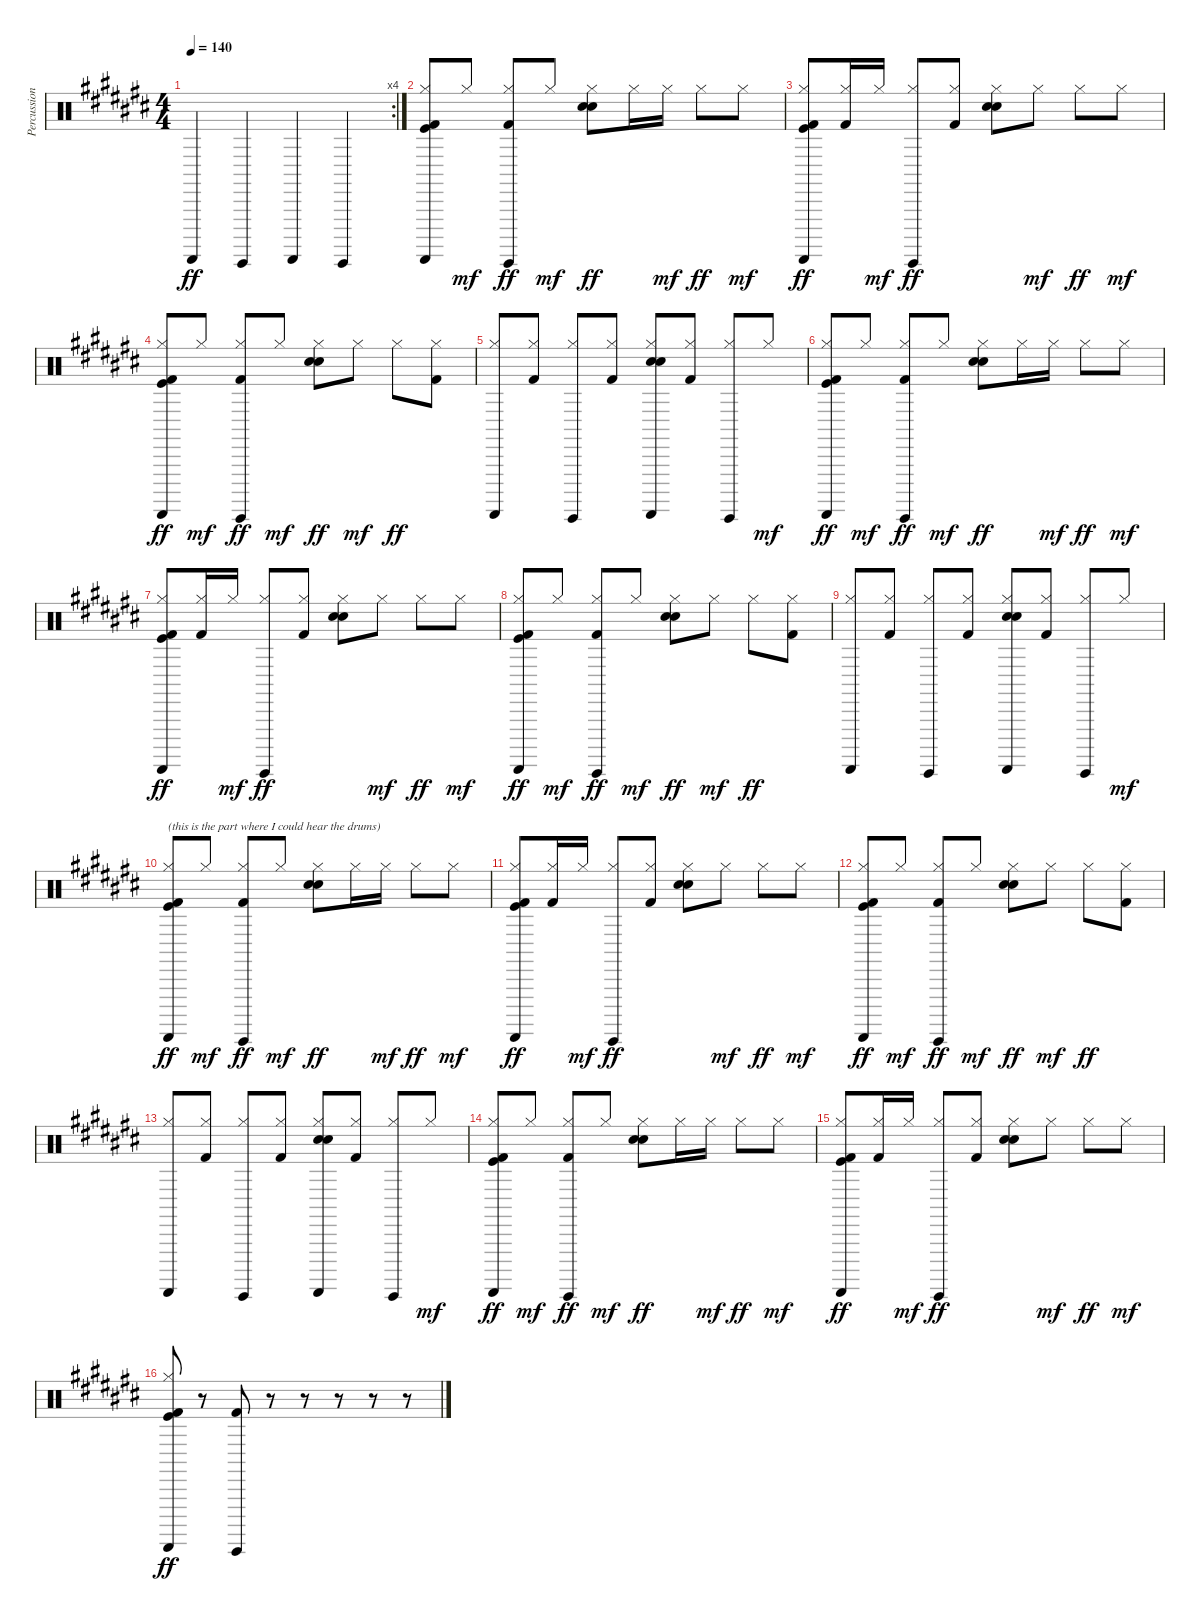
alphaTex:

\track ("Percussion" "Percussion") {instrument percussion}
\staff {score}
\articulation defaults
\rc 4
\ts (4 4)
\tempo 140
\clef neutral
\ks c# "Guiro (scrap-return)".4{dy ff} "Guiro (hit)".4 "Guiro (scrap-return)".4 "Guiro (hit)".4
|
("Guiro (scrap-return)" "Hi-Hat (closed)" "Kick (hit)" "Kick (hit) 2").8 "Hi-Hat (closed)".8{dy mf} ("Guiro (hit)" "Hi-Hat (closed)" "Kick (hit) 2").8{dy ff} "Hi-Hat (closed)".8{dy mf} ("Hi-Hat (closed)" "Electric Snare (hit)" "Snare (hit) 2").8{dy ff} "Hi-Hat (closed)".16 "Hi-Hat (closed)".16{dy mf} "Hi-Hat (closed)".8{dy ff} "Hi-Hat (closed)".8{dy mf} |
("Guiro (scrap-return)" "Hi-Hat (closed)" "Kick (hit)" "Kick (hit) 2").8{dy ff} ("Hi-Hat (closed)" "Kick (hit) 2").16 "Hi-Hat (closed)".16{dy mf} ("Guiro (hit)" "Hi-Hat (closed)").8{dy ff} ("Hi-Hat (closed)" "Kick (hit) 2").8 ("Hi-Hat (closed)" "Electric Snare (hit)" "Snare (hit) 2").8 "Hi-Hat (closed)".8{dy mf} "Hi-Hat (closed)".8{dy ff} "Hi-Hat (closed)".8{dy mf} |
("Guiro (scrap-return)" "Hi-Hat (closed)" "Kick (hit)" "Kick (hit) 2").8{dy ff} "Hi-Hat (closed)".8{dy mf} ("Guiro (hit)" "Hi-Hat (closed)" "Kick (hit) 2").8{dy ff} "Hi-Hat (closed)".8{dy mf} ("Hi-Hat (closed)" "Electric Snare (hit)" "Snare (hit) 2").8{dy ff} "Hi-Hat (closed)".8{dy mf} "Hi-Hat (closed)".8{dy ff} ("Hi-Hat (closed)" "Kick (hit) 2").8 |
("Guiro (scrap-return)" "Hi-Hat (closed)").8 ("Hi-Hat (closed)" "Kick (hit) 2").8 ("Guiro (hit)" "Hi-Hat (closed)").8 ("Hi-Hat (closed)" "Kick (hit) 2").8 ("Guiro (scrap-return)" "Hi-Hat (closed)" "Electric Snare (hit)" "Snare (hit) 2").8 ("Hi-Hat (closed)" "Kick (hit) 2").8 ("Guiro (hit)" "Hi-Hat (closed)").8 "Hi-Hat (closed)".8{dy mf} |
("Guiro (scrap-return)" "Hi-Hat (closed)" "Kick (hit)" "Kick (hit) 2").8{dy ff} "Hi-Hat (closed)".8{dy mf} ("Guiro (hit)" "Hi-Hat (closed)" "Kick (hit) 2").8{dy ff} "Hi-Hat (closed)".8{dy mf} ("Hi-Hat (closed)" "Electric Snare (hit)" "Snare (hit) 2").8{dy ff} "Hi-Hat (closed)".16 "Hi-Hat (closed)".16{dy mf} "Hi-Hat (closed)".8{dy ff} "Hi-Hat (closed)".8{dy mf} |
("Guiro (scrap-return)" "Hi-Hat (closed)" "Kick (hit)" "Kick (hit) 2").8{dy ff} ("Hi-Hat (closed)" "Kick (hit) 2").16 "Hi-Hat (closed)".16{dy mf} ("Guiro (hit)" "Hi-Hat (closed)").8{dy ff} ("Hi-Hat (closed)" "Kick (hit) 2").8 ("Hi-Hat (closed)" "Electric Snare (hit)" "Snare (hit) 2").8 "Hi-Hat (closed)".8{dy mf} "Hi-Hat (closed)".8{dy ff} "Hi-Hat (closed)".8{dy mf} |
("Guiro (scrap-return)" "Hi-Hat (closed)" "Kick (hit)" "Kick (hit) 2").8{dy ff} "Hi-Hat (closed)".8{dy mf} ("Guiro (hit)" "Hi-Hat (closed)" "Kick (hit) 2").8{dy ff} "Hi-Hat (closed)".8{dy mf} ("Hi-Hat (closed)" "Electric Snare (hit)" "Snare (hit) 2").8{dy ff} "Hi-Hat (closed)".8{dy mf} "Hi-Hat (closed)".8{dy ff} ("Hi-Hat (closed)" "Kick (hit) 2").8 |
("Guiro (scrap-return)" "Hi-Hat (closed)").8 ("Hi-Hat (closed)" "Kick (hit) 2").8 ("Guiro (hit)" "Hi-Hat (closed)").8 ("Hi-Hat (closed)" "Kick (hit) 2").8 ("Guiro (scrap-return)" "Hi-Hat (closed)" "Electric Snare (hit)" "Snare (hit) 2").8 ("Hi-Hat (closed)" "Kick (hit) 2").8 ("Guiro (hit)" "Hi-Hat (closed)").8 "Hi-Hat (closed)".8{dy mf} |
("Guiro (scrap-return)" "Hi-Hat (closed)" "Kick (hit)" "Kick (hit) 2").8{txt "(this is the part where I could hear the drums)" dy ff} "Hi-Hat (closed)".8{dy mf} ("Guiro (hit)" "Hi-Hat (closed)" "Kick (hit) 2").8{dy ff} "Hi-Hat (closed)".8{dy mf} ("Hi-Hat (closed)" "Electric Snare (hit)" "Snare (hit) 2").8{dy ff} "Hi-Hat (closed)".16 "Hi-Hat (closed)".16{dy mf} "Hi-Hat (closed)".8{dy ff} "Hi-Hat (closed)".8{dy mf} |
("Guiro (scrap-return)" "Hi-Hat (closed)" "Kick (hit)" "Kick (hit) 2").8{dy ff} ("Hi-Hat (closed)" "Kick (hit) 2").16 "Hi-Hat (closed)".16{dy mf} ("Guiro (hit)" "Hi-Hat (closed)").8{dy ff} ("Hi-Hat (closed)" "Kick (hit) 2").8 ("Hi-Hat (closed)" "Electric Snare (hit)" "Snare (hit) 2").8 "Hi-Hat (closed)".8{dy mf} "Hi-Hat (closed)".8{dy ff} "Hi-Hat (closed)".8{dy mf} |
("Guiro (scrap-return)" "Hi-Hat (closed)" "Kick (hit)" "Kick (hit) 2").8{dy ff} "Hi-Hat (closed)".8{dy mf} ("Guiro (hit)" "Hi-Hat (closed)" "Kick (hit) 2").8{dy ff} "Hi-Hat (closed)".8{dy mf} ("Hi-Hat (closed)" "Electric Snare (hit)" "Snare (hit) 2").8{dy ff} "Hi-Hat (closed)".8{dy mf} "Hi-Hat (closed)".8{dy ff} ("Hi-Hat (closed)" "Kick (hit) 2").8 |
("Guiro (scrap-return)" "Hi-Hat (closed)").8 ("Hi-Hat (closed)" "Kick (hit) 2").8 ("Guiro (hit)" "Hi-Hat (closed)").8 ("Hi-Hat (closed)" "Kick (hit) 2").8 ("Guiro (scrap-return)" "Hi-Hat (closed)" "Electric Snare (hit)" "Snare (hit) 2").8 ("Hi-Hat (closed)" "Kick (hit) 2").8 ("Guiro (hit)" "Hi-Hat (closed)").8 "Hi-Hat (closed)".8{dy mf} |
("Guiro (scrap-return)" "Hi-Hat (closed)" "Kick (hit)" "Kick (hit) 2").8{dy ff} "Hi-Hat (closed)".8{dy mf} ("Guiro (hit)" "Hi-Hat (closed)" "Kick (hit) 2").8{dy ff} "Hi-Hat (closed)".8{dy mf} ("Hi-Hat (closed)" "Electric Snare (hit)" "Snare (hit) 2").8{dy ff} "Hi-Hat (closed)".16 "Hi-Hat (closed)".16{dy mf} "Hi-Hat (closed)".8{dy ff} "Hi-Hat (closed)".8{dy mf} |
("Guiro (scrap-return)" "Hi-Hat (closed)" "Kick (hit)" "Kick (hit) 2").8{dy ff} ("Hi-Hat (closed)" "Kick (hit) 2").16 "Hi-Hat (closed)".16{dy mf} ("Guiro (hit)" "Hi-Hat (closed)").8{dy ff} ("Hi-Hat (closed)" "Kick (hit) 2").8 ("Hi-Hat (closed)" "Electric Snare (hit)" "Snare (hit) 2").8 "Hi-Hat (closed)".8{dy mf} "Hi-Hat (closed)".8{dy ff} "Hi-Hat (closed)".8{dy mf} |
("Guiro (scrap-return)" "Hi-Hat (closed)" "Kick (hit)" "Kick (hit) 2").8{dy ff} r.8 ("Guiro (hit)" "Kick (hit) 2").8 r.8 r.8 r.8 r.8 r.8
